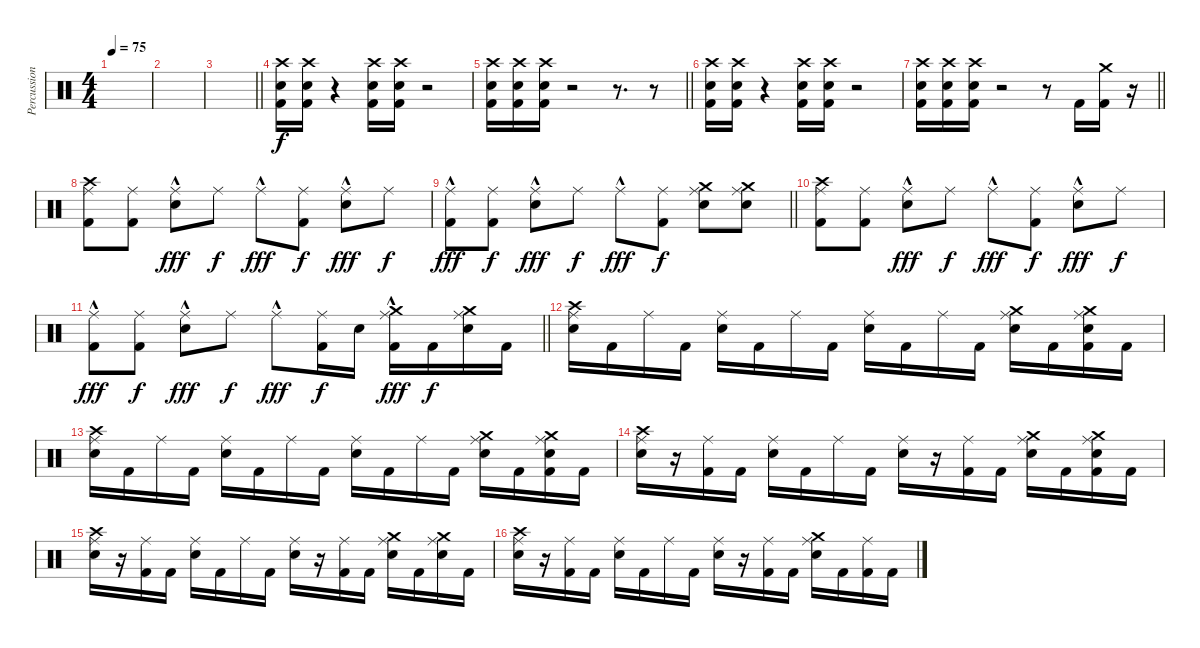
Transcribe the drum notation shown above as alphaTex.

\track ("Percussions" "Percussion") {instrument percussion}
\staff {score}
\articulation defaults
\ts (4 4)
\tempo 75
\clef neutral
\ks c
|
|
\barLineRight lightlight
|
("Crash high (hit)" "Snare (hit) 2" "Kick (hit) 2").16 ("Crash high (hit)" "Snare (hit) 2" "Kick (hit) 2").16 r.4 ("Crash high (hit)" "Snare (hit) 2" "Kick (hit) 2").16 ("Crash high (hit)" "Snare (hit) 2" "Kick (hit) 2").16 r.2 |
\barLineRight lightlight
("Crash high (hit)" "Snare (hit) 2" "Kick (hit) 2").16 ("Crash high (hit)" "Snare (hit) 2" "Kick (hit) 2").16 ("Crash high (hit)" "Snare (hit) 2" "Kick (hit) 2").16 r.2 r.8{d} r.8 |
("Crash high (hit)" "Snare (hit) 2" "Kick (hit) 2").16 ("Crash high (hit)" "Snare (hit) 2" "Kick (hit) 2").16 r.4 ("Crash high (hit)" "Snare (hit) 2" "Kick (hit) 2").16 ("Crash high (hit)" "Snare (hit) 2" "Kick (hit) 2").16 r.2 |
\barLineRight lightlight
("Crash high (hit)" "Snare (hit) 2" "Kick (hit) 2").16 ("Crash high (hit)" "Snare (hit) 2" "Kick (hit) 2").16 ("Crash high (hit)" "Snare (hit) 2" "Kick (hit) 2").16 r.2 r.8 "Kick (hit) 2".16 ("Crash medium (hit)" "Kick (hit) 2").16 r.16 |
("Crash high (hit)" "Ride (middle)" "Kick (hit) 2").8 ("Ride (middle)" "Kick (hit) 2").8 ("Ride (middle)"{hac} "Snare (hit) 2").8{dy fff} "Ride (middle)".8{dy f} "Ride (middle)"{hac}.8{dy fff} ("Ride (middle)" "Kick (hit) 2").8{dy f} ("Ride (middle)"{hac} "Snare (hit) 2").8{dy fff} "Ride (middle)".8{dy f} |
\barLineRight lightlight
("Ride (middle)"{hac} "Kick (hit) 2").8{dy fff} ("Ride (middle)" "Kick (hit) 2").8{dy f} ("Ride (middle)"{hac} "Snare (hit) 2").8{dy fff} "Ride (middle)".8{dy f} "Ride (middle)"{hac}.8{dy fff} ("Ride (middle)" "Kick (hit) 2").8{dy f} ("Crash medium (hit)" "Ride (middle)" "Snare (hit) 2").8 ("Crash medium (hit)" "Ride (middle)" "Snare (hit) 2").8 |
("Crash high (hit)" "Ride (middle)" "Kick (hit) 2").8 ("Ride (middle)" "Kick (hit) 2").8 ("Ride (middle)"{hac} "Snare (hit) 2").8{dy fff} "Ride (middle)".8{dy f} "Ride (middle)"{hac}.8{dy fff} ("Ride (middle)" "Kick (hit) 2").8{dy f} ("Ride (middle)"{hac} "Snare (hit) 2").8{dy fff} "Ride (middle)".8{dy f} |
\barLineRight lightlight
("Ride (middle)"{hac} "Kick (hit) 2").8{dy fff} ("Ride (middle)" "Kick (hit) 2").8{dy f} ("Ride (middle)"{hac} "Snare (hit) 2").8{dy fff} "Ride (middle)".8{dy f} "Ride (middle)"{hac}.8{dy fff} ("Ride (middle)" "Kick (hit) 2").16{dy f} "Snare (hit) 2".16 ("Crash medium (hit)" "Ride (middle)"{hac} "Kick (hit) 2").16{dy fff} "Kick (hit) 2".16{dy f} ("Crash medium (hit)" "Ride (middle)" "Snare (hit) 2").16 "Kick (hit) 2".16 |
("Ride (middle)" "Snare (hit) 2" "Crash high (hit)").16 "Kick (hit) 2".16 "Ride (middle)".16 "Kick (hit) 2".16 ("Ride (middle)" "Snare (hit) 2").16 "Kick (hit) 2".16 "Ride (middle)".16 "Kick (hit) 2".16 ("Ride (middle)" "Snare (hit) 2").16 "Kick (hit) 2".16 "Ride (middle)".16 "Kick (hit) 2".16 ("Ride (middle)" "Snare (hit) 2" "Crash medium (hit)").16 "Kick (hit) 2".16 ("Ride (middle)" "Snare (hit) 2" "Crash medium (hit)" "Kick (hit) 2").16 "Kick (hit) 2".16 |
("Ride (middle)" "Snare (hit) 2" "Crash high (hit)").16 "Kick (hit) 2".16 "Ride (middle)".16 "Kick (hit) 2".16 ("Ride (middle)" "Snare (hit) 2").16 "Kick (hit) 2".16 "Ride (middle)".16 "Kick (hit) 2".16 ("Ride (middle)" "Snare (hit) 2").16 "Kick (hit) 2".16 "Ride (middle)".16 "Kick (hit) 2".16 ("Ride (middle)" "Snare (hit) 2" "Crash medium (hit)").16 "Kick (hit) 2".16 ("Ride (middle)" "Snare (hit) 2" "Crash medium (hit)" "Kick (hit) 2").16 "Kick (hit) 2".16 |
("Ride (middle)" "Snare (hit) 2" "Crash high (hit)").16 r.16 ("Ride (middle)" "Kick (hit) 2").16 "Kick (hit) 2".16 ("Ride (middle)" "Snare (hit) 2").16 "Kick (hit) 2".16 "Ride (middle)".16 "Kick (hit) 2".16 ("Ride (middle)" "Snare (hit) 2").16 r.16 ("Ride (middle)" "Kick (hit) 2").16 "Kick (hit) 2".16 ("Ride (middle)" "Snare (hit) 2" "Crash medium (hit)").16 "Kick (hit) 2".16 ("Ride (middle)" "Snare (hit) 2" "Crash medium (hit)" "Kick (hit) 2").16 "Kick (hit) 2".16 |
("Ride (middle)" "Snare (hit) 2" "Crash high (hit)").16 r.16 ("Ride (middle)" "Kick (hit) 2").16 "Kick (hit) 2".16 ("Ride (middle)" "Snare (hit) 2").16 "Kick (hit) 2".16 "Ride (middle)".16 "Kick (hit) 2".16 ("Ride (middle)" "Snare (hit) 2").16 r.16 ("Ride (middle)" "Kick (hit) 2").16 "Kick (hit) 2".16 ("Ride (middle)" "Snare (hit) 2" "Crash medium (hit)").16 "Kick (hit) 2".16 ("Ride (middle)" "Snare (hit) 2" "Crash medium (hit)").16 "Kick (hit) 2".16 |
("Ride (middle)" "Snare (hit) 2" "Crash high (hit)").16 r.16 ("Ride (middle)" "Kick (hit) 2").16 "Kick (hit) 2".16 ("Ride (middle)" "Snare (hit) 2").16 "Kick (hit) 2".16 "Ride (middle)".16 "Kick (hit) 2".16 ("Ride (middle)" "Snare (hit) 2").16 r.16 ("Ride (middle)" "Kick (hit) 2").16 "Kick (hit) 2".16 ("Ride (middle)" "Snare (hit) 2" "Crash medium (hit)").16 "Kick (hit) 2".16 ("Ride (middle)" "Kick (hit) 2").16 "Kick (hit) 2".16
